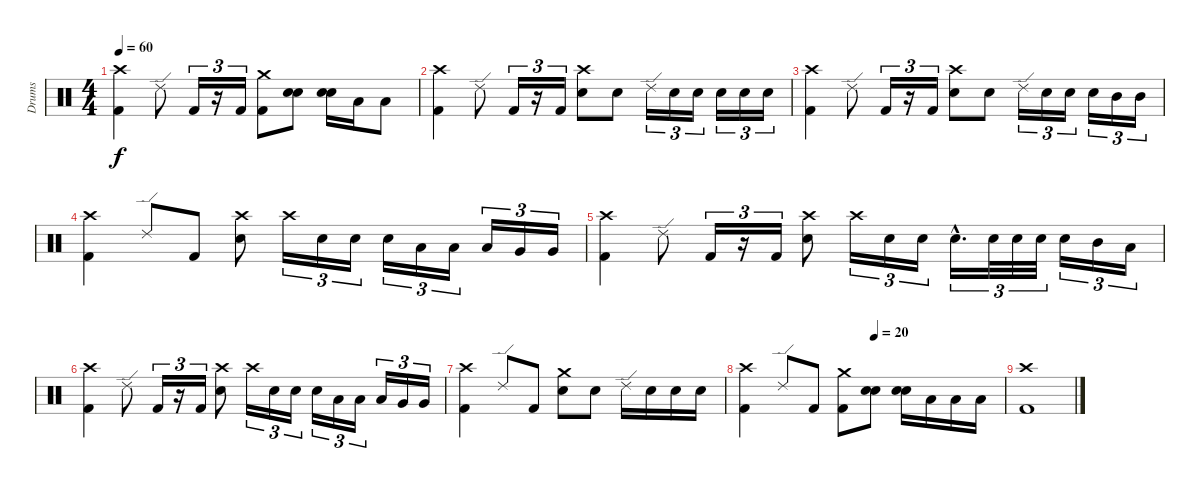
\track ("Drums" "Drums") {instrument percussion}
\staff {score}
\articulation defaults
\ts (4 4)
\tempo 60
\clef neutral
\ks c
("Crash high (hit)" "Kick (hit) 2").4{dy f} "Ride (edge) 2".8 "Kick (hit) 2".16{tu (3 2)} r.16{tu (3 2)} "Kick (hit) 2".16{tu (3 2)} ("Crash medium (hit)" "Kick (hit) 2").8 ("Electric Snare (hit)" "Electric Snare (hit)").8{bu 60} ("Electric Snare (hit)" "Electric Snare (hit)").16{bu 60} "Low Tom (hit)".16 "Low Tom (hit)".8 |
("Crash high (hit)" "Kick (hit) 2").4 "Ride (edge) 2".8 "Kick (hit) 2".16{tu (3 2)} r.16{tu (3 2)} "Kick (hit) 2".16{tu (3 2)} ("Crash high (hit)" "Electric Snare (hit)").8 "Electric Snare (hit)".8 "Ride (edge) 2".16{tu (3 2)} "Electric Snare (hit)".16{tu (3 2)} "Electric Snare (hit)".16{tu (3 2)} "Electric Snare (hit)".16{tu (3 2)} "Electric Snare (hit)".16{tu (3 2)} "Electric Snare (hit)".16{tu (3 2)} |
("Crash high (hit)" "Kick (hit) 2").4 "Ride (edge) 2".8 "Kick (hit) 2".16{tu (3 2)} r.16{tu (3 2)} "Kick (hit) 2".16{tu (3 2)} ("Crash high (hit)" "Electric Snare (hit)").8 "Electric Snare (hit)".8 "Ride (edge) 2".16{tu (3 2)} "Electric Snare (hit)".16{tu (3 2)} "Electric Snare (hit)".16{tu (3 2)} "Electric Snare (hit)".16{tu (3 2)} "Mid Tom (hit)".16{tu (3 2)} "Mid Tom (hit)".16{tu (3 2)} |
("Crash high (hit)" "Kick (hit) 2").4 "Ride (edge) 2".8 "Kick (hit) 2".8 ("Crash high (hit)" "Electric Snare (hit)").8 "Crash high (hit)".16{tu (3 2)} "Electric Snare (hit)".16{tu (3 2)} "Electric Snare (hit)".16{tu (3 2)} "Electric Snare (hit)".16{tu (3 2)} "Low Tom (hit)".16{tu (3 2)} "Low Tom (hit)".16{tu (3 2)} "Low Tom (hit)".16{tu (3 2)} "Very Low Tom (hit)".16{tu (3 2)} "Very Low Tom (hit)".16{tu (3 2)} |
("Crash high (hit)" "Kick (hit) 2").4 "Ride (edge) 2".8 "Kick (hit) 2".16{tu (3 2)} r.16{tu (3 2)} "Kick (hit) 2".16{tu (3 2)} ("Crash high (hit)" "Electric Snare (hit)").8 "Crash high (hit)".16{tu (3 2)} "Electric Snare (hit)".16{tu (3 2)} "Electric Snare (hit)".16{tu (3 2)} "Electric Snare (hit)"{hac}.16{d tu (3 2)} "Electric Snare (hit)".32{tu (3 2)} "Electric Snare (hit)".32{tu (3 2)} "Electric Snare (hit)".32{tu (3 2)} "Electric Snare (hit)".16{tu (3 2)} "Mid Tom (hit)".16{tu (3 2)} "Low Tom (hit)".16{tu (3 2)} |
("Crash high (hit)" "Kick (hit) 2").4 "Ride (edge) 2".8 "Kick (hit) 2".16{tu (3 2)} r.16{tu (3 2)} "Kick (hit) 2".16{tu (3 2)} ("Crash high (hit)" "Electric Snare (hit)").8 "Crash high (hit)".16{tu (3 2)} "Electric Snare (hit)".16{tu (3 2)} "Electric Snare (hit)".16{tu (3 2)} "Electric Snare (hit)".16{tu (3 2)} "Low Tom (hit)".16{tu (3 2)} "Low Tom (hit)".16{tu (3 2)} "Low Tom (hit)".16{tu (3 2)} "Very Low Tom (hit)".16{tu (3 2)} "Very Low Tom (hit)".16{tu (3 2)} |
("Crash high (hit)" "Kick (hit) 2").4 "Ride (edge) 2".8 "Kick (hit) 2".8 ("Crash medium (hit)" "Electric Snare (hit)").8 "Electric Snare (hit)".8 "Ride (edge) 2".16 "Electric Snare (hit)".16 "Electric Snare (hit)".16 "Electric Snare (hit)".16 |
\tempo (20 0.5)
("Crash high (hit)" "Kick (hit) 2").4 "Ride (edge) 2".8 "Kick (hit) 2".8 ("Crash medium (hit)" "Kick (hit) 2").8 ("Electric Snare (hit)" "Electric Snare (hit)").8{bu 60} ("Electric Snare (hit)" "Electric Snare (hit)").16{bu 60} "Low Tom (hit)".16 "Low Tom (hit)".16 "Low Tom (hit)".16 |
("Crash high (hit)" "Kick (hit) 2").1
